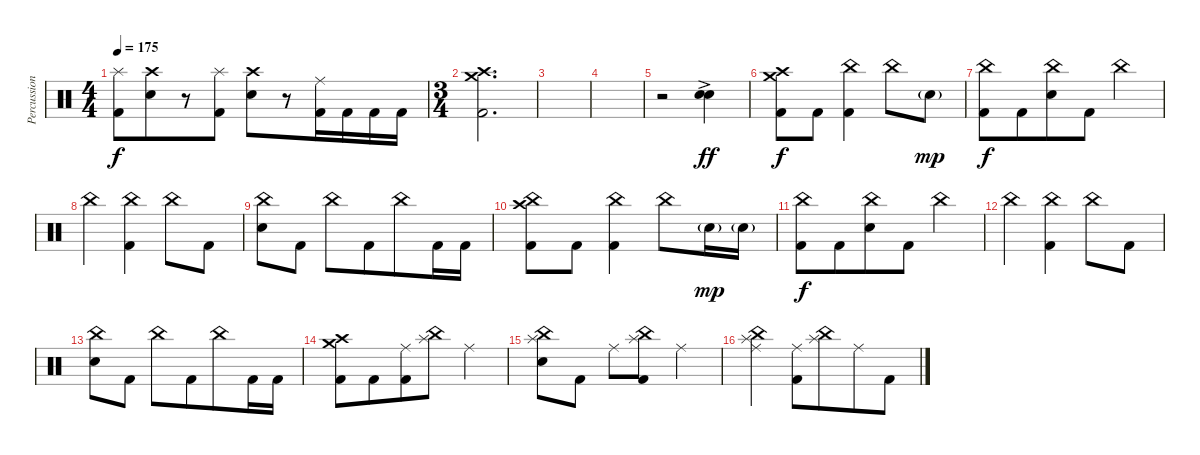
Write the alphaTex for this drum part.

\track ("Percussion" "Percussion") {instrument percussion bank 7}
\staff {score}
\articulation defaults
\ts (4 4)
\tempo 175
\clef neutral
\ks c
("Splash (hit)" "Kick (hit) 2").8{dy f beam merge} ("Crash high (hit)" "Electric Snare (hit)").8{beam merge} r.8 ("Splash (hit)" "Kick (hit) 2").8 ("Crash high (hit)" "Electric Snare (hit)").8{beam merge} r.8{beam merge} ("Ride (middle)" "Kick (hit) 2").16 "Kick (hit) 2".16 "Kick (hit) 2".16{beam merge} "Kick (hit) 2".16 |
\ts (3 4)
("Crash medium (hit)" "Crash high (hit)" "Kick (hit) 2").2{d} |
|
|
r.2 ("Electric Snare (hit)"{ac} "Electric Snare (hit)").4{bd 120 dy ff} |
("Crash medium (hit)" "Crash high (hit)" "Kick (hit) 2").8{dy f} "Kick (hit) 2".8{beam merge} ("China (hit)" "Kick (hit) 2").4 "China (hit)".8{beam merge} "Electric Snare (hit)"{g}.8{dy mp} |
("China (hit)" "Kick (hit) 2").8{dy f beam merge} "Kick (hit) 2".8{beam merge} ("China (hit)" "Electric Snare (hit)").8{beam merge} "Kick (hit) 2".8 "China (hit)".4 |
"China (hit)".4{beam merge} ("China (hit)" "Kick (hit) 2").4 "China (hit)".8 "Kick (hit) 2".8 |
("China (hit)" "Electric Snare (hit)").8 "Kick (hit) 2".8 "China (hit)".8 "Kick (hit) 2".8{beam merge} "China (hit)".8 "Kick (hit) 2".16{beam merge} "Kick (hit) 2".16 |
("China (hit)" "Crash high (hit)" "Kick (hit) 2").8 "Kick (hit) 2".8{beam merge} ("China (hit)" "Kick (hit) 2").4 "China (hit)".8{beam merge} "Electric Snare (hit)"{g}.16{dy mp} "Electric Snare (hit)"{g}.16 |
("China (hit)" "Kick (hit) 2").8{dy f beam merge} "Kick (hit) 2".8{beam merge} ("China (hit)" "Electric Snare (hit)").8{beam merge} "Kick (hit) 2".8 "China (hit)".4 |
"China (hit)".4{beam merge} ("China (hit)" "Kick (hit) 2").4 "China (hit)".8 "Kick (hit) 2".8 |
("China (hit)" "Electric Snare (hit)").8 "Kick (hit) 2".8 "China (hit)".8 "Kick (hit) 2".8{beam merge} "China (hit)".8 "Kick (hit) 2".16{beam merge} "Kick (hit) 2".16 |
("Crash medium (hit)" "Crash high (hit)" "Kick (hit) 2").8 "Kick (hit) 2".8{beam merge} ("Ride (middle)" "Kick (hit) 2").8 ("China (hit)" "Splash (hit)").8 "Ride (middle)".4 |
("China (hit)" "Splash (hit)" "Electric Snare (hit)").8 "Kick (hit) 2".8 "Ride (middle)".8{beam merge} ("China (hit)" "Splash (hit)" "Kick (hit) 2").8{beam merge} "Ride (middle)".4 |
("Ride (middle)" "China (hit)" "Splash (hit)").4{beam merge} ("Ride (middle)" "Kick (hit) 2").8 ("China (hit)" "Splash (hit)").8{beam merge} "Ride (middle)".8 "Kick (hit) 2".8
